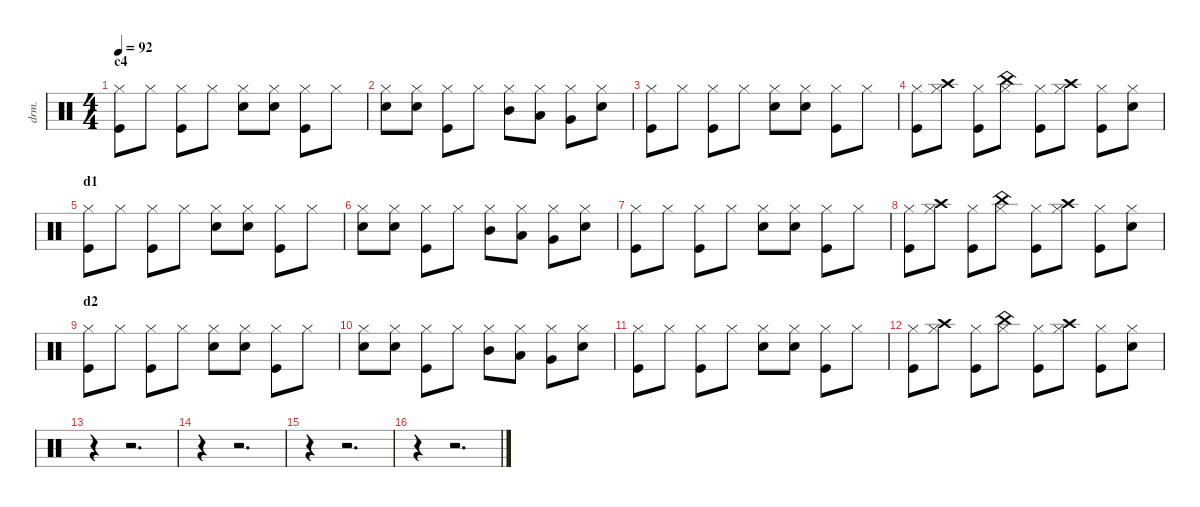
\defaultSystemsLayout 4
\hideDynamics
\bracketExtendMode nobrackets
\otherSystemsTrackNameOrientation horizontal
\track ("waves" "drm.") {instrument percussion}
\staff {score}
\articulation defaults
\ts (4 4)
\section ("" "c4")
\tempo 92
\clef neutral
\ks c
("Hi-Hat (closed)" "Kick (hit)").8{dy f beam Down} "Hi-Hat (closed)".8{beam Down} ("Hi-Hat (closed)" "Kick (hit)").8{beam Down} "Hi-Hat (closed)".8{beam Down} ("Hi-Hat (closed)" "Snare (hit) 2").8{beam Down} ("Hi-Hat (closed)" "Snare (hit) 2").8{beam Down} ("Hi-Hat (closed)" "Kick (hit)").8{beam Down} "Hi-Hat (closed)".8{beam Down} |
("Hi-Hat (closed)" "Snare (hit) 2").8{beam Down} ("Hi-Hat (closed)" "Snare (hit) 2").8{beam Down} ("Hi-Hat (closed)" "Kick (hit)").8{beam Down} "Hi-Hat (closed)".8{beam Down} ("Mid Tom (hit)" "Hi-Hat (closed)").8{beam Down} ("Low Tom (hit)" "Hi-Hat (closed)").8{beam Down} ("Very Low Tom (hit)" "Hi-Hat (closed)").8{beam Down} ("Snare (hit) 2" "Hi-Hat (closed)").8{beam Down} |
("Hi-Hat (closed)" "Kick (hit)").8{beam Down} "Hi-Hat (closed)".8{beam Down} ("Hi-Hat (closed)" "Kick (hit)").8{beam Down} "Hi-Hat (closed)".8{beam Down} ("Hi-Hat (closed)" "Snare (hit) 2").8{beam Down} ("Hi-Hat (closed)" "Snare (hit) 2").8{beam Down} ("Hi-Hat (closed)" "Kick (hit)").8{beam Down} "Hi-Hat (closed)".8{beam Down} |
("Hi-Hat (closed)" "Kick (hit)").8{beam Down} ("Crash high (hit)" "Hi-Hat (closed)").8{beam Down} ("Hi-Hat (closed)" "Kick (hit)").8{beam Down} ("China (hit)" "Hi-Hat (closed)").8{beam Down} ("Hi-Hat (closed)" "Kick (hit)").8{beam Down} ("Crash high (hit)" "Hi-Hat (closed)").8{beam Down} ("Hi-Hat (closed)" "Kick (hit)").8{beam Down} ("Hi-Hat (closed)" "Snare (hit) 2").8{beam Down} |
\section ("" "d1")
("Hi-Hat (closed)" "Kick (hit)").8{beam Down} "Hi-Hat (closed)".8{beam Down} ("Hi-Hat (closed)" "Kick (hit)").8{beam Down} "Hi-Hat (closed)".8{beam Down} ("Hi-Hat (closed)" "Snare (hit) 2").8{beam Down} ("Hi-Hat (closed)" "Snare (hit) 2").8{beam Down} ("Hi-Hat (closed)" "Kick (hit)").8{beam Down} "Hi-Hat (closed)".8{beam Down} |
("Hi-Hat (closed)" "Snare (hit) 2").8{beam Down} ("Hi-Hat (closed)" "Snare (hit) 2").8{beam Down} ("Hi-Hat (closed)" "Kick (hit)").8{beam Down} "Hi-Hat (closed)".8{beam Down} ("Mid Tom (hit)" "Hi-Hat (closed)").8{beam Down} ("Low Tom (hit)" "Hi-Hat (closed)").8{beam Down} ("Very Low Tom (hit)" "Hi-Hat (closed)").8{beam Down} ("Snare (hit) 2" "Hi-Hat (closed)").8{beam Down} |
("Hi-Hat (closed)" "Kick (hit)").8{beam Down} "Hi-Hat (closed)".8{beam Down} ("Hi-Hat (closed)" "Kick (hit)").8{beam Down} "Hi-Hat (closed)".8{beam Down} ("Hi-Hat (closed)" "Snare (hit) 2").8{beam Down} ("Hi-Hat (closed)" "Snare (hit) 2").8{beam Down} ("Hi-Hat (closed)" "Kick (hit)").8{beam Down} "Hi-Hat (closed)".8{beam Down} |
("Hi-Hat (closed)" "Kick (hit)").8{beam Down} ("Crash high (hit)" "Hi-Hat (closed)").8{beam Down} ("Hi-Hat (closed)" "Kick (hit)").8{beam Down} ("China (hit)" "Hi-Hat (closed)").8{beam Down} ("Hi-Hat (closed)" "Kick (hit)").8{beam Down} ("Crash high (hit)" "Hi-Hat (closed)").8{beam Down} ("Hi-Hat (closed)" "Kick (hit)").8{beam Down} ("Hi-Hat (closed)" "Snare (hit) 2").8{beam Down} |
\section ("" "d2")
("Hi-Hat (closed)" "Kick (hit)").8{beam Down} "Hi-Hat (closed)".8{beam Down} ("Hi-Hat (closed)" "Kick (hit)").8{beam Down} "Hi-Hat (closed)".8{beam Down} ("Hi-Hat (closed)" "Snare (hit) 2").8{beam Down} ("Hi-Hat (closed)" "Snare (hit) 2").8{beam Down} ("Hi-Hat (closed)" "Kick (hit)").8{beam Down} "Hi-Hat (closed)".8{beam Down} |
("Hi-Hat (closed)" "Snare (hit) 2").8{beam Down} ("Hi-Hat (closed)" "Snare (hit) 2").8{beam Down} ("Hi-Hat (closed)" "Kick (hit)").8{beam Down} "Hi-Hat (closed)".8{beam Down} ("Mid Tom (hit)" "Hi-Hat (closed)").8{beam Down} ("Low Tom (hit)" "Hi-Hat (closed)").8{beam Down} ("Very Low Tom (hit)" "Hi-Hat (closed)").8{beam Down} ("Snare (hit) 2" "Hi-Hat (closed)").8{beam Down} |
("Hi-Hat (closed)" "Kick (hit)").8{beam Down} "Hi-Hat (closed)".8{beam Down} ("Hi-Hat (closed)" "Kick (hit)").8{beam Down} "Hi-Hat (closed)".8{beam Down} ("Hi-Hat (closed)" "Snare (hit) 2").8{beam Down} ("Hi-Hat (closed)" "Snare (hit) 2").8{beam Down} ("Hi-Hat (closed)" "Kick (hit)").8{beam Down} "Hi-Hat (closed)".8{beam Down} |
("Hi-Hat (closed)" "Kick (hit)").8{beam Down} ("Crash high (hit)" "Hi-Hat (closed)").8{beam Down} ("Hi-Hat (closed)" "Kick (hit)").8{beam Down} ("China (hit)" "Hi-Hat (closed)").8{beam Down} ("Hi-Hat (closed)" "Kick (hit)").8{beam Down} ("Crash high (hit)" "Hi-Hat (closed)").8{beam Down} ("Hi-Hat (closed)" "Kick (hit)").8{beam Down} ("Hi-Hat (closed)" "Snare (hit) 2").8{beam Down} |
r.4{beam Down} r.2{d beam Down} |
r.4{beam Down} r.2{d beam Down} |
r.4{beam Down} r.2{d beam Down} |
r.4{beam Down} r.2{d beam Down}
